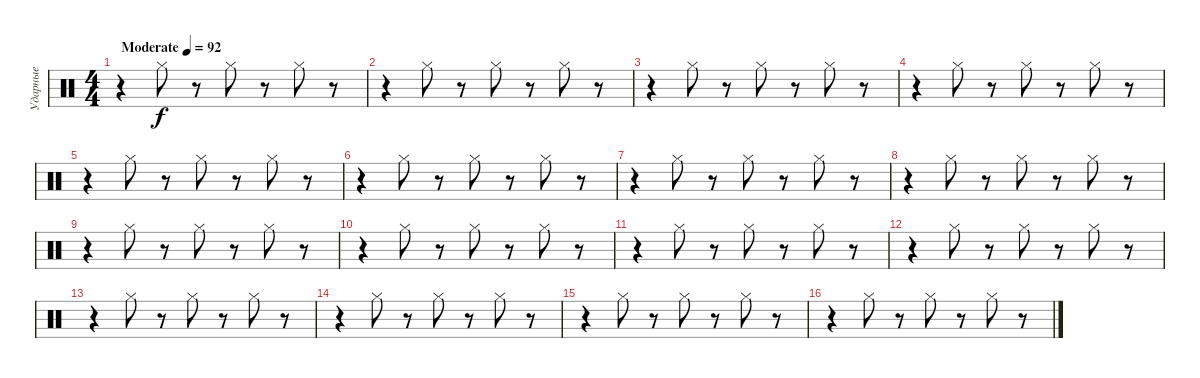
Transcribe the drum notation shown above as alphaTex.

\track ("Ударные" "Ударные") {instrument percussion}
\staff {score}
\articulation defaults
\ts (4 4)
\tempo (92 "Moderate")
\clef neutral
\ks c
r.4{dy f} "Hi-Hat (closed)".8 r.8 "Hi-Hat (closed)".8 r.8 "Hi-Hat (closed)".8 r.8 |
r.4 "Hi-Hat (closed)".8 r.8 "Hi-Hat (closed)".8 r.8 "Hi-Hat (closed)".8 r.8 |
r.4 "Hi-Hat (closed)".8 r.8 "Hi-Hat (closed)".8 r.8 "Hi-Hat (closed)".8 r.8 |
r.4 "Hi-Hat (closed)".8 r.8 "Hi-Hat (closed)".8 r.8 "Hi-Hat (closed)".8 r.8 |
r.4 "Hi-Hat (closed)".8 r.8 "Hi-Hat (closed)".8 r.8 "Hi-Hat (closed)".8 r.8 |
r.4 "Hi-Hat (closed)".8 r.8 "Hi-Hat (closed)".8 r.8 "Hi-Hat (closed)".8 r.8 |
r.4 "Hi-Hat (closed)".8 r.8 "Hi-Hat (closed)".8 r.8 "Hi-Hat (closed)".8 r.8 |
r.4 "Hi-Hat (closed)".8 r.8 "Hi-Hat (closed)".8 r.8 "Hi-Hat (closed)".8 r.8 |
r.4 "Hi-Hat (closed)".8 r.8 "Hi-Hat (closed)".8 r.8 "Hi-Hat (closed)".8 r.8 |
r.4 "Hi-Hat (closed)".8 r.8 "Hi-Hat (closed)".8 r.8 "Hi-Hat (closed)".8 r.8 |
r.4 "Hi-Hat (closed)".8 r.8 "Hi-Hat (closed)".8 r.8 "Hi-Hat (closed)".8 r.8 |
r.4 "Hi-Hat (closed)".8 r.8 "Hi-Hat (closed)".8 r.8 "Hi-Hat (closed)".8 r.8 |
r.4 "Hi-Hat (closed)".8 r.8 "Hi-Hat (closed)".8 r.8 "Hi-Hat (closed)".8 r.8 |
r.4 "Hi-Hat (closed)".8 r.8 "Hi-Hat (closed)".8 r.8 "Hi-Hat (closed)".8 r.8 |
r.4 "Hi-Hat (closed)".8 r.8 "Hi-Hat (closed)".8 r.8 "Hi-Hat (closed)".8 r.8 |
r.4 "Hi-Hat (closed)".8 r.8 "Hi-Hat (closed)".8 r.8 "Hi-Hat (closed)".8 r.8
